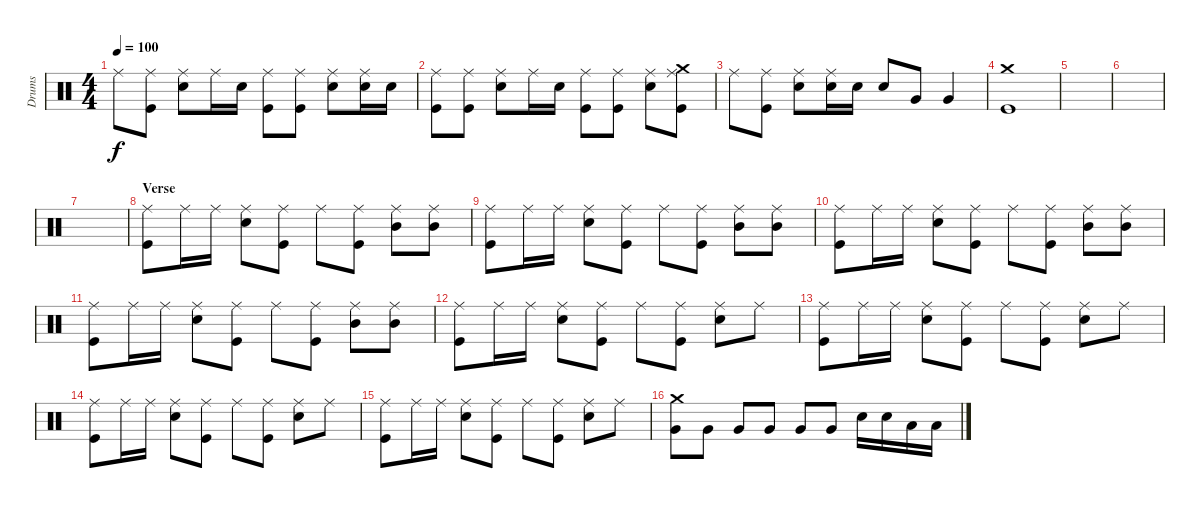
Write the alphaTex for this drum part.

\track ("Drums" "Drums") {instrument percussion}
\staff {score}
\articulation defaults
\ts (4 4)
\tempo 100
\clef neutral
\ks c "Ride (middle)".8{dy f}
("Ride (middle)" "Kick (hit)").8 ("Ride (middle)" "Snare (hit) 2").8 "Ride (middle)".16 "Snare (hit) 2".16 ("Ride (middle)" "Kick (hit)").8 ("Ride (middle)" "Kick (hit)").8 ("Ride (middle)" "Snare (hit) 2").8 ("Ride (middle)" "Snare (hit) 2").16 "Snare (hit) 2".16 |
("Ride (middle)" "Kick (hit)").8 ("Ride (middle)" "Kick (hit)").8 ("Ride (middle)" "Snare (hit) 2").8 "Ride (middle)".16 "Snare (hit) 2".16 ("Ride (middle)" "Kick (hit)").8 ("Ride (middle)" "Kick (hit)").8 ("Ride (middle)" "Snare (hit) 2").8 ("Ride (middle)" "Crash medium (hit)" "Kick (hit)").8 |
"Ride (middle)".8 ("Ride (middle)" "Kick (hit)").8 ("Ride (middle)" "Snare (hit) 2").8 ("Ride (middle)" "Snare (hit) 2").16 "Snare (hit) 2".16 "Snare (hit) 2".8 "Very Low Tom (hit)".8 "Very Low Tom (hit)".4 |
("Crash medium (hit)" "Kick (hit)").1 |
|
|
|
\section ("" "Verse")
("Ride (middle)" "Kick (hit)").8 "Ride (middle)".16 "Ride (middle)".16 ("Ride (middle)" "Snare (hit) 2").8 ("Ride (middle)" "Kick (hit)").8 "Ride (middle)".8 ("Ride (middle)" "Kick (hit)").8 ("Ride (middle)" "Mid Tom (hit)").8 ("Ride (middle)" "Mid Tom (hit)").8 |
("Ride (middle)" "Kick (hit)").8 "Ride (middle)".16 "Ride (middle)".16 ("Ride (middle)" "Snare (hit) 2").8 ("Ride (middle)" "Kick (hit)").8 "Ride (middle)".8 ("Ride (middle)" "Kick (hit)").8 ("Ride (middle)" "Mid Tom (hit)").8 ("Ride (middle)" "Mid Tom (hit)").8 |
("Ride (middle)" "Kick (hit)").8 "Ride (middle)".16 "Ride (middle)".16 ("Ride (middle)" "Snare (hit) 2").8 ("Ride (middle)" "Kick (hit)").8 "Ride (middle)".8 ("Ride (middle)" "Kick (hit)").8 ("Ride (middle)" "Mid Tom (hit)").8 ("Ride (middle)" "Mid Tom (hit)").8 |
("Ride (middle)" "Kick (hit)").8 "Ride (middle)".16 "Ride (middle)".16 ("Ride (middle)" "Snare (hit) 2").8 ("Ride (middle)" "Kick (hit)").8 "Ride (middle)".8 ("Ride (middle)" "Kick (hit)").8 ("Ride (middle)" "Mid Tom (hit)").8 ("Ride (middle)" "Mid Tom (hit)").8 |
("Ride (middle)" "Kick (hit)").8 "Ride (middle)".16 "Ride (middle)".16 ("Ride (middle)" "Snare (hit) 2").8 ("Ride (middle)" "Kick (hit)").8 "Ride (middle)".8 ("Ride (middle)" "Kick (hit)").8 ("Ride (middle)" "Snare (hit) 2").8 "Ride (middle)".8 |
("Ride (middle)" "Kick (hit)").8 "Ride (middle)".16 "Ride (middle)".16 ("Ride (middle)" "Snare (hit) 2").8 ("Ride (middle)" "Kick (hit)").8 "Ride (middle)".8 ("Ride (middle)" "Kick (hit)").8 ("Ride (middle)" "Snare (hit) 2").8 "Ride (middle)".8 |
("Ride (middle)" "Kick (hit)").8 "Ride (middle)".16 "Ride (middle)".16 ("Ride (middle)" "Snare (hit) 2").8 ("Ride (middle)" "Kick (hit)").8 "Ride (middle)".8 ("Ride (middle)" "Kick (hit)").8 ("Ride (middle)" "Snare (hit) 2").8 "Ride (middle)".8 |
("Ride (middle)" "Kick (hit)").8 "Ride (middle)".16 "Ride (middle)".16 ("Ride (middle)" "Snare (hit) 2").8 ("Ride (middle)" "Kick (hit)").8 "Ride (middle)".8 ("Ride (middle)" "Kick (hit)").8 ("Ride (middle)" "Snare (hit) 2").8 "Ride (middle)".8 |
("Crash medium (hit)" "Very Low Tom (hit)").8 "Very Low Tom (hit)".8 "Very Low Tom (hit)".8 "Very Low Tom (hit)".8 "Very Low Tom (hit)".8 "Very Low Tom (hit)".8 "Snare (hit) 2".16 "Snare (hit) 2".16 "Low Tom (hit)".16 "Low Tom (hit)".16
